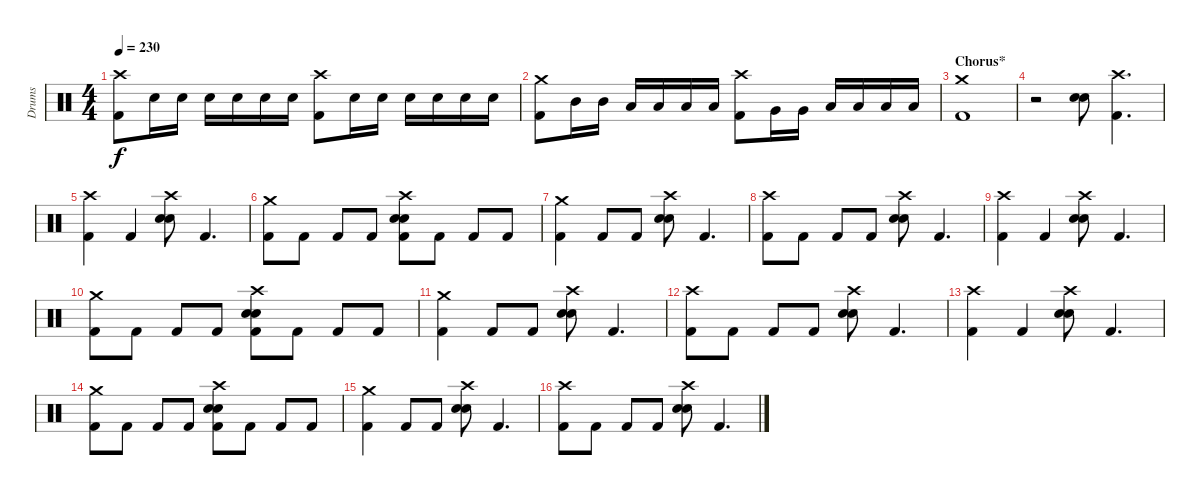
\track ("Drums" "Drums") {instrument percussion}
\staff {score}
\articulation defaults
\ts (4 4)
\tempo 230
\clef neutral
\ks c
("Crash high (hit)" "Kick (hit) 2").8{dy f} "Electric Snare (hit)".16 "Electric Snare (hit)".16 "Electric Snare (hit)".16 "Electric Snare (hit)".16 "Electric Snare (hit)".16 "Electric Snare (hit)".16 ("Crash high (hit)" "Kick (hit) 2").8 "Electric Snare (hit)".16 "Electric Snare (hit)".16 "Electric Snare (hit)".16 "Electric Snare (hit)".16 "Electric Snare (hit)".16 "Electric Snare (hit)".16 |
("Crash medium (hit)" "Kick (hit) 2").8 "Mid Tom (hit)".16 "Mid Tom (hit)".16 "Low Tom (hit)".16 "Low Tom (hit)".16 "Low Tom (hit)".16 "Low Tom (hit)".16 ("Crash high (hit)" "Kick (hit) 2").8 "Very Low Tom (hit)".16 "Very Low Tom (hit)".16 "Low Floor Tom (hit)".16 "Low Floor Tom (hit)".16 "Low Floor Tom (hit)".16 "Low Floor Tom (hit)".16 |
\section ("" "Chorus*")
("Crash medium (hit)" "Kick (hit) 2").1 |
r.2 ("Electric Snare (hit)" "Electric Snare (hit)").8 ("Crash high (hit)" "Kick (hit) 2").4{d} |
("Crash high (hit)" "Kick (hit) 2").4 "Kick (hit) 2".4 ("Crash high (hit)" "Electric Snare (hit)" "Electric Snare (hit)").8 "Kick (hit) 2".4{d} |
("Crash medium (hit)" "Kick (hit) 2").8 "Kick (hit) 2".8 "Kick (hit) 2".8 "Kick (hit) 2".8 ("Crash high (hit)" "Electric Snare (hit)" "Electric Snare (hit)" "Kick (hit) 2").8 "Kick (hit) 2".8 "Kick (hit) 2".8 "Kick (hit) 2".8 |
("Crash medium (hit)" "Kick (hit) 2").4 "Kick (hit) 2".8 "Kick (hit) 2".8 ("Crash high (hit)" "Electric Snare (hit)" "Electric Snare (hit)").8 "Kick (hit) 2".4{d} |
("Crash high (hit)" "Kick (hit) 2").8 "Kick (hit) 2".8 "Kick (hit) 2".8 "Kick (hit) 2".8 ("Crash high (hit)" "Electric Snare (hit)" "Electric Snare (hit)").8 "Kick (hit) 2".4{d} |
("Crash high (hit)" "Kick (hit) 2").4 "Kick (hit) 2".4 ("Crash high (hit)" "Electric Snare (hit)" "Electric Snare (hit)").8 "Kick (hit) 2".4{d} |
("Crash medium (hit)" "Kick (hit) 2").8 "Kick (hit) 2".8 "Kick (hit) 2".8 "Kick (hit) 2".8 ("Crash high (hit)" "Electric Snare (hit)" "Electric Snare (hit)" "Kick (hit) 2").8 "Kick (hit) 2".8 "Kick (hit) 2".8 "Kick (hit) 2".8 |
("Crash medium (hit)" "Kick (hit) 2").4 "Kick (hit) 2".8 "Kick (hit) 2".8 ("Crash high (hit)" "Electric Snare (hit)" "Electric Snare (hit)").8 "Kick (hit) 2".4{d} |
("Crash high (hit)" "Kick (hit) 2").8 "Kick (hit) 2".8 "Kick (hit) 2".8 "Kick (hit) 2".8 ("Crash high (hit)" "Electric Snare (hit)" "Electric Snare (hit)").8 "Kick (hit) 2".4{d} |
("Crash high (hit)" "Kick (hit) 2").4 "Kick (hit) 2".4 ("Crash high (hit)" "Electric Snare (hit)" "Electric Snare (hit)").8 "Kick (hit) 2".4{d} |
("Crash medium (hit)" "Kick (hit) 2").8 "Kick (hit) 2".8 "Kick (hit) 2".8 "Kick (hit) 2".8 ("Crash high (hit)" "Electric Snare (hit)" "Electric Snare (hit)" "Kick (hit) 2").8 "Kick (hit) 2".8 "Kick (hit) 2".8 "Kick (hit) 2".8 |
("Crash medium (hit)" "Kick (hit) 2").4 "Kick (hit) 2".8 "Kick (hit) 2".8 ("Crash high (hit)" "Electric Snare (hit)" "Electric Snare (hit)").8 "Kick (hit) 2".4{d} |
("Crash high (hit)" "Kick (hit) 2").8 "Kick (hit) 2".8 "Kick (hit) 2".8 "Kick (hit) 2".8 ("Crash high (hit)" "Electric Snare (hit)" "Electric Snare (hit)").8 "Kick (hit) 2".4{d}
